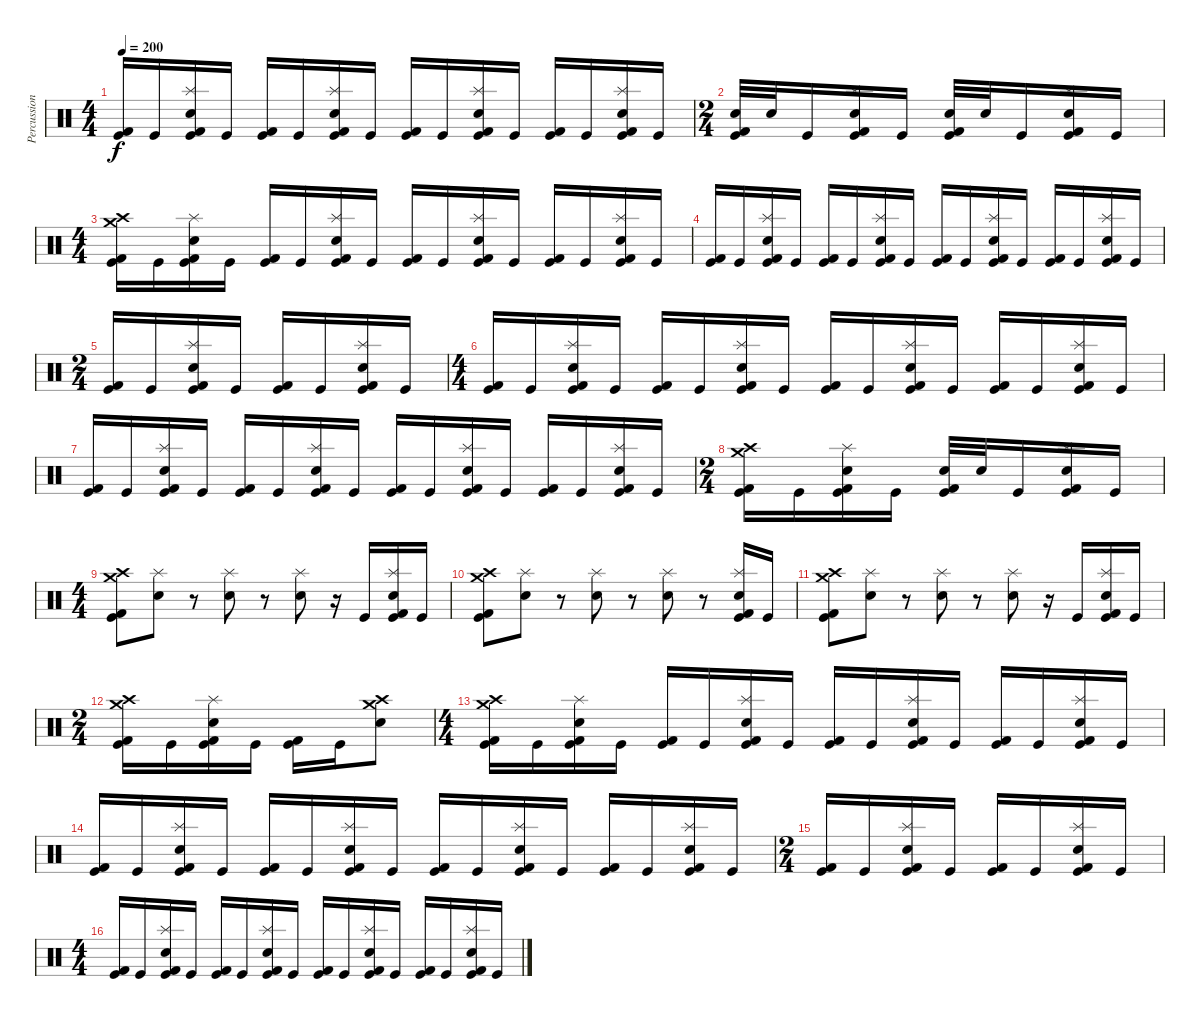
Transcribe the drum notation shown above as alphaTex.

\track ("Percussion" "Percussion") {instrument percussion}
\staff {score}
\articulation defaults
\ts (4 4)
\tempo 200
\clef neutral
\ks c
("Kick (hit) 2" "Kick (hit)").16{dy f} "Kick (hit)".16 ("Splash (hit)" "Snare (hit) 2" "Kick (hit) 2" "Kick (hit)").16 "Kick (hit)".16 ("Kick (hit) 2" "Kick (hit)").16 "Kick (hit)".16 ("Splash (hit)" "Snare (hit) 2" "Kick (hit) 2" "Kick (hit)").16 "Kick (hit)".16 ("Kick (hit) 2" "Kick (hit)").16 "Kick (hit)".16 ("Splash (hit)" "Snare (hit) 2" "Kick (hit) 2" "Kick (hit)").16 "Kick (hit)".16 ("Kick (hit) 2" "Kick (hit)").16 "Kick (hit)".16 ("Splash (hit)" "Snare (hit) 2" "Kick (hit) 2" "Kick (hit)").16 "Kick (hit)".16 |
\ts (2 4)
("Snare (hit) 2" "Kick (hit) 2" "Kick (hit)").32 "Snare (hit) 2".32 "Kick (hit)".16 ("Splash (hit)" "Snare (hit) 2" "Kick (hit) 2" "Kick (hit)").16 "Kick (hit)".16 ("Snare (hit) 2" "Kick (hit) 2" "Kick (hit)").32 "Snare (hit) 2".32 "Kick (hit)".16 ("Splash (hit)" "Snare (hit) 2" "Kick (hit) 2" "Kick (hit)").16 "Kick (hit)".16 |
\ts (4 4)
("Crash high (hit)" "Crash medium (hit)" "Kick (hit) 2" "Kick (hit)").16 "Kick (hit)".16 ("Splash (hit)" "Snare (hit) 2" "Kick (hit) 2" "Kick (hit)").16 "Kick (hit)".16 ("Kick (hit) 2" "Kick (hit)").16 "Kick (hit)".16 ("Splash (hit)" "Snare (hit) 2" "Kick (hit) 2" "Kick (hit)").16 "Kick (hit)".16 ("Kick (hit) 2" "Kick (hit)").16 "Kick (hit)".16 ("Splash (hit)" "Snare (hit) 2" "Kick (hit) 2" "Kick (hit)").16 "Kick (hit)".16 ("Kick (hit) 2" "Kick (hit)").16 "Kick (hit)".16 ("Splash (hit)" "Snare (hit) 2" "Kick (hit) 2" "Kick (hit)").16 "Kick (hit)".16 |
("Kick (hit) 2" "Kick (hit)").16 "Kick (hit)".16 ("Splash (hit)" "Snare (hit) 2" "Kick (hit) 2" "Kick (hit)").16 "Kick (hit)".16 ("Kick (hit) 2" "Kick (hit)").16 "Kick (hit)".16 ("Splash (hit)" "Snare (hit) 2" "Kick (hit) 2" "Kick (hit)").16 "Kick (hit)".16 ("Kick (hit) 2" "Kick (hit)").16 "Kick (hit)".16 ("Splash (hit)" "Snare (hit) 2" "Kick (hit) 2" "Kick (hit)").16 "Kick (hit)".16 ("Kick (hit) 2" "Kick (hit)").16 "Kick (hit)".16 ("Splash (hit)" "Snare (hit) 2" "Kick (hit) 2" "Kick (hit)").16 "Kick (hit)".16 |
\ts (2 4)
("Kick (hit) 2" "Kick (hit)").16 "Kick (hit)".16 ("Splash (hit)" "Snare (hit) 2" "Kick (hit) 2" "Kick (hit)").16 "Kick (hit)".16 ("Kick (hit) 2" "Kick (hit)").16 "Kick (hit)".16 ("Splash (hit)" "Snare (hit) 2" "Kick (hit) 2" "Kick (hit)").16 "Kick (hit)".16 |
\ts (4 4)
("Kick (hit) 2" "Kick (hit)").16 "Kick (hit)".16 ("Splash (hit)" "Snare (hit) 2" "Kick (hit) 2" "Kick (hit)").16 "Kick (hit)".16 ("Kick (hit) 2" "Kick (hit)").16 "Kick (hit)".16 ("Splash (hit)" "Snare (hit) 2" "Kick (hit) 2" "Kick (hit)").16 "Kick (hit)".16 ("Kick (hit) 2" "Kick (hit)").16 "Kick (hit)".16 ("Splash (hit)" "Snare (hit) 2" "Kick (hit) 2" "Kick (hit)").16 "Kick (hit)".16 ("Kick (hit) 2" "Kick (hit)").16 "Kick (hit)".16 ("Splash (hit)" "Snare (hit) 2" "Kick (hit) 2" "Kick (hit)").16 "Kick (hit)".16 |
("Kick (hit) 2" "Kick (hit)").16 "Kick (hit)".16 ("Splash (hit)" "Snare (hit) 2" "Kick (hit) 2" "Kick (hit)").16 "Kick (hit)".16 ("Kick (hit) 2" "Kick (hit)").16 "Kick (hit)".16 ("Splash (hit)" "Snare (hit) 2" "Kick (hit) 2" "Kick (hit)").16 "Kick (hit)".16 ("Kick (hit) 2" "Kick (hit)").16 "Kick (hit)".16 ("Splash (hit)" "Snare (hit) 2" "Kick (hit) 2" "Kick (hit)").16 "Kick (hit)".16 ("Kick (hit) 2" "Kick (hit)").16 "Kick (hit)".16 ("Splash (hit)" "Snare (hit) 2" "Kick (hit) 2" "Kick (hit)").16 "Kick (hit)".16 |
\ts (2 4)
("Crash high (hit)" "Crash medium (hit)" "Kick (hit) 2" "Kick (hit)").16 "Kick (hit)".16 ("Splash (hit)" "Snare (hit) 2" "Kick (hit) 2" "Kick (hit)").16 "Kick (hit)".16 ("Snare (hit) 2" "Kick (hit) 2" "Kick (hit)").32 "Snare (hit) 2".32 "Kick (hit)".16 ("Splash (hit)" "Snare (hit) 2" "Kick (hit) 2" "Kick (hit)").16 "Kick (hit)".16 |
\ts (4 4)
("Crash high (hit)" "Crash medium (hit)" "Kick (hit) 2" "Kick (hit)").8 ("Splash (hit)" "Snare (hit) 2").8 r.8 ("Splash (hit)" "Snare (hit) 2").8 r.8 ("Splash (hit)" "Snare (hit) 2").8 r.16 "Kick (hit)".16 ("Splash (hit)" "Snare (hit) 2" "Kick (hit) 2" "Kick (hit)").16 "Kick (hit)".16 |
("Crash high (hit)" "Crash medium (hit)" "Kick (hit) 2" "Kick (hit)").8 ("Splash (hit)" "Snare (hit) 2").8 r.8 ("Splash (hit)" "Snare (hit) 2").8 r.8 ("Splash (hit)" "Snare (hit) 2").8 r.8 ("Splash (hit)" "Snare (hit) 2" "Kick (hit) 2" "Kick (hit)").16 "Kick (hit)".16 |
("Crash high (hit)" "Crash medium (hit)" "Kick (hit) 2" "Kick (hit)").8 ("Splash (hit)" "Snare (hit) 2").8 r.8 ("Splash (hit)" "Snare (hit) 2").8 r.8 ("Splash (hit)" "Snare (hit) 2").8 r.16 "Kick (hit)".16 ("Splash (hit)" "Snare (hit) 2" "Kick (hit) 2" "Kick (hit)").16 "Kick (hit)".16 |
\ts (2 4)
("Crash high (hit)" "Crash medium (hit)" "Kick (hit) 2" "Kick (hit)").16 "Kick (hit)".16 ("Splash (hit)" "Snare (hit) 2" "Kick (hit) 2" "Kick (hit)").16 "Kick (hit)".16 ("Kick (hit) 2" "Kick (hit)").16 "Kick (hit)".16 ("Crash high (hit)" "Crash medium (hit)" "Snare (hit) 2").8 |
\ts (4 4)
("Crash high (hit)" "Crash medium (hit)" "Kick (hit) 2" "Kick (hit)").16 "Kick (hit)".16 ("Splash (hit)" "Snare (hit) 2" "Kick (hit) 2" "Kick (hit)").16 "Kick (hit)".16 ("Kick (hit) 2" "Kick (hit)").16 "Kick (hit)".16 ("Splash (hit)" "Snare (hit) 2" "Kick (hit) 2" "Kick (hit)").16 "Kick (hit)".16 ("Kick (hit) 2" "Kick (hit)").16 "Kick (hit)".16 ("Splash (hit)" "Snare (hit) 2" "Kick (hit) 2" "Kick (hit)").16 "Kick (hit)".16 ("Kick (hit) 2" "Kick (hit)").16 "Kick (hit)".16 ("Splash (hit)" "Snare (hit) 2" "Kick (hit) 2" "Kick (hit)").16 "Kick (hit)".16 |
("Kick (hit) 2" "Kick (hit)").16 "Kick (hit)".16 ("Splash (hit)" "Snare (hit) 2" "Kick (hit) 2" "Kick (hit)").16 "Kick (hit)".16 ("Kick (hit) 2" "Kick (hit)").16 "Kick (hit)".16 ("Splash (hit)" "Snare (hit) 2" "Kick (hit) 2" "Kick (hit)").16 "Kick (hit)".16 ("Kick (hit) 2" "Kick (hit)").16 "Kick (hit)".16 ("Splash (hit)" "Snare (hit) 2" "Kick (hit) 2" "Kick (hit)").16 "Kick (hit)".16 ("Kick (hit) 2" "Kick (hit)").16 "Kick (hit)".16 ("Splash (hit)" "Snare (hit) 2" "Kick (hit) 2" "Kick (hit)").16 "Kick (hit)".16 |
\ts (2 4)
("Kick (hit) 2" "Kick (hit)").16 "Kick (hit)".16 ("Splash (hit)" "Snare (hit) 2" "Kick (hit) 2" "Kick (hit)").16 "Kick (hit)".16 ("Kick (hit) 2" "Kick (hit)").16 "Kick (hit)".16 ("Splash (hit)" "Snare (hit) 2" "Kick (hit) 2" "Kick (hit)").16 "Kick (hit)".16 |
\ts (4 4)
("Kick (hit) 2" "Kick (hit)").16 "Kick (hit)".16 ("Splash (hit)" "Snare (hit) 2" "Kick (hit) 2" "Kick (hit)").16 "Kick (hit)".16 ("Kick (hit) 2" "Kick (hit)").16 "Kick (hit)".16 ("Splash (hit)" "Snare (hit) 2" "Kick (hit) 2" "Kick (hit)").16 "Kick (hit)".16 ("Kick (hit) 2" "Kick (hit)").16 "Kick (hit)".16 ("Splash (hit)" "Snare (hit) 2" "Kick (hit) 2" "Kick (hit)").16 "Kick (hit)".16 ("Kick (hit) 2" "Kick (hit)").16 "Kick (hit)".16 ("Splash (hit)" "Snare (hit) 2" "Kick (hit) 2" "Kick (hit)").16 "Kick (hit)".16
